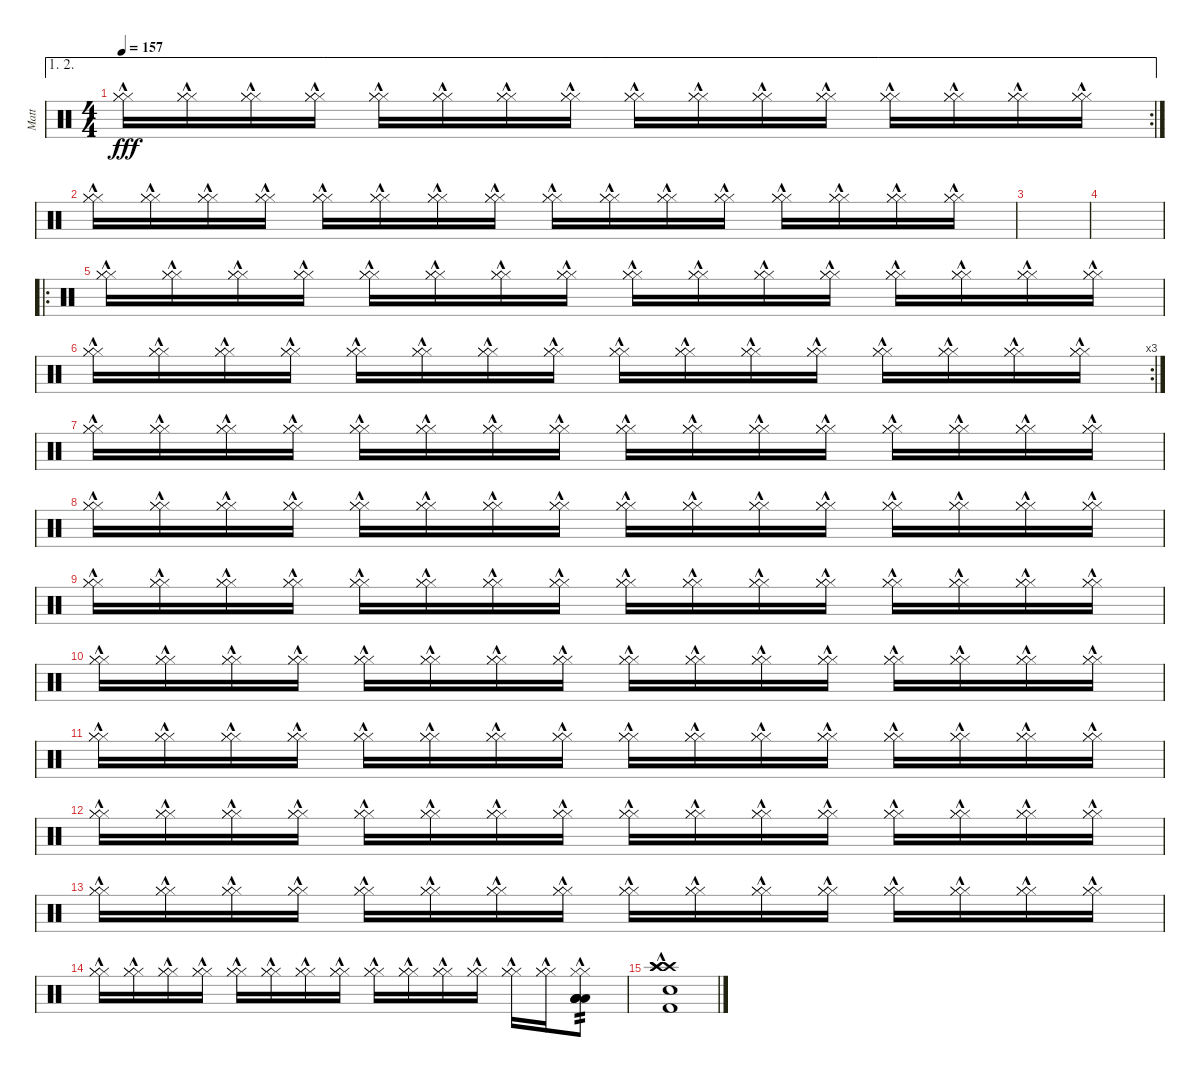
\track ("Matt" "Matt") {instrument percussion}
\staff {score}
\articulation defaults
\ae (1 2)
\rc 2
\ts (4 4)
\tempo 157
\clef neutral
\ks c
("Hi-Hat (closed)"{hac} "Hi-Hat (closed)"{hac} "Hi-Hat (closed)"{hac}).16{dy fff} ("Hi-Hat (closed)"{hac} "Hi-Hat (closed)"{hac} "Hi-Hat (closed)"{hac}).16 ("Hi-Hat (closed)"{hac} "Hi-Hat (closed)"{hac} "Hi-Hat (closed)"{hac}).16 ("Hi-Hat (closed)"{hac} "Hi-Hat (closed)"{hac} "Hi-Hat (closed)"{hac}).16 ("Hi-Hat (closed)"{hac} "Hi-Hat (closed)"{hac} "Hi-Hat (closed)"{hac}).16 ("Hi-Hat (closed)"{hac} "Hi-Hat (closed)"{hac} "Hi-Hat (closed)"{hac}).16 ("Hi-Hat (closed)"{hac} "Hi-Hat (closed)"{hac} "Hi-Hat (closed)"{hac}).16 ("Hi-Hat (closed)"{hac} "Hi-Hat (closed)"{hac} "Hi-Hat (closed)"{hac}).16 ("Hi-Hat (closed)"{hac} "Hi-Hat (closed)"{hac} "Hi-Hat (closed)"{hac}).16 ("Hi-Hat (closed)"{hac} "Hi-Hat (closed)"{hac} "Hi-Hat (closed)"{hac}).16 ("Hi-Hat (closed)"{hac} "Hi-Hat (closed)"{hac} "Hi-Hat (closed)"{hac}).16 ("Hi-Hat (closed)"{hac} "Hi-Hat (closed)"{hac} "Hi-Hat (closed)"{hac}).16 ("Hi-Hat (closed)"{hac} "Hi-Hat (closed)"{hac} "Hi-Hat (closed)"{hac}).16 ("Hi-Hat (closed)"{hac} "Hi-Hat (closed)"{hac} "Hi-Hat (closed)"{hac}).16 ("Hi-Hat (closed)"{hac} "Hi-Hat (closed)"{hac} "Hi-Hat (closed)"{hac}).16 ("Hi-Hat (closed)"{hac} "Hi-Hat (closed)"{hac} "Hi-Hat (closed)"{hac}).16 |
("Hi-Hat (closed)"{hac} "Hi-Hat (closed)"{hac} "Hi-Hat (closed)"{hac}).16 ("Hi-Hat (closed)"{hac} "Hi-Hat (closed)"{hac} "Hi-Hat (closed)"{hac}).16 ("Hi-Hat (closed)"{hac} "Hi-Hat (closed)"{hac} "Hi-Hat (closed)"{hac}).16 ("Hi-Hat (closed)"{hac} "Hi-Hat (closed)"{hac} "Hi-Hat (closed)"{hac}).16 ("Hi-Hat (closed)"{hac} "Hi-Hat (closed)"{hac} "Hi-Hat (closed)"{hac}).16 ("Hi-Hat (closed)"{hac} "Hi-Hat (closed)"{hac} "Hi-Hat (closed)"{hac}).16 ("Hi-Hat (closed)"{hac} "Hi-Hat (closed)"{hac} "Hi-Hat (closed)"{hac}).16 ("Hi-Hat (closed)"{hac} "Hi-Hat (closed)"{hac} "Hi-Hat (closed)"{hac}).16 ("Hi-Hat (closed)"{hac} "Hi-Hat (closed)"{hac} "Hi-Hat (closed)"{hac}).16 ("Hi-Hat (closed)"{hac} "Hi-Hat (closed)"{hac} "Hi-Hat (closed)"{hac}).16 ("Hi-Hat (closed)"{hac} "Hi-Hat (closed)"{hac} "Hi-Hat (closed)"{hac}).16 ("Hi-Hat (closed)"{hac} "Hi-Hat (closed)"{hac} "Hi-Hat (closed)"{hac}).16 ("Hi-Hat (closed)"{hac} "Hi-Hat (closed)"{hac} "Hi-Hat (closed)"{hac}).16 ("Hi-Hat (closed)"{hac} "Hi-Hat (closed)"{hac} "Hi-Hat (closed)"{hac}).16 ("Hi-Hat (closed)"{hac} "Hi-Hat (closed)"{hac} "Hi-Hat (closed)"{hac}).16 ("Hi-Hat (closed)"{hac} "Hi-Hat (closed)"{hac} "Hi-Hat (closed)"{hac}).16 |
|
|
\ro
("Hi-Hat (closed)"{hac} "Hi-Hat (closed)"{hac} "Hi-Hat (closed)"{hac}).16 ("Hi-Hat (closed)"{hac} "Hi-Hat (closed)"{hac} "Hi-Hat (closed)"{hac}).16 ("Hi-Hat (closed)"{hac} "Hi-Hat (closed)"{hac} "Hi-Hat (closed)"{hac}).16 ("Hi-Hat (closed)"{hac} "Hi-Hat (closed)"{hac} "Hi-Hat (closed)"{hac}).16 ("Hi-Hat (closed)"{hac} "Hi-Hat (closed)"{hac} "Hi-Hat (closed)"{hac}).16 ("Hi-Hat (closed)"{hac} "Hi-Hat (closed)"{hac} "Hi-Hat (closed)"{hac}).16 ("Hi-Hat (closed)"{hac} "Hi-Hat (closed)"{hac} "Hi-Hat (closed)"{hac}).16 ("Hi-Hat (closed)"{hac} "Hi-Hat (closed)"{hac} "Hi-Hat (closed)"{hac}).16 ("Hi-Hat (closed)"{hac} "Hi-Hat (closed)"{hac} "Hi-Hat (closed)"{hac}).16 ("Hi-Hat (closed)"{hac} "Hi-Hat (closed)"{hac} "Hi-Hat (closed)"{hac}).16 ("Hi-Hat (closed)"{hac} "Hi-Hat (closed)"{hac} "Hi-Hat (closed)"{hac}).16 ("Hi-Hat (closed)"{hac} "Hi-Hat (closed)"{hac} "Hi-Hat (closed)"{hac}).16 ("Hi-Hat (closed)"{hac} "Hi-Hat (closed)"{hac} "Hi-Hat (closed)"{hac}).16 ("Hi-Hat (closed)"{hac} "Hi-Hat (closed)"{hac} "Hi-Hat (closed)"{hac}).16 ("Hi-Hat (closed)"{hac} "Hi-Hat (closed)"{hac} "Hi-Hat (closed)"{hac}).16 ("Hi-Hat (closed)"{hac} "Hi-Hat (closed)"{hac} "Hi-Hat (closed)"{hac}).16 |
\rc 3
("Hi-Hat (closed)"{hac} "Hi-Hat (closed)"{hac} "Hi-Hat (closed)"{hac}).16 ("Hi-Hat (closed)"{hac} "Hi-Hat (closed)"{hac} "Hi-Hat (closed)"{hac}).16 ("Hi-Hat (closed)"{hac} "Hi-Hat (closed)"{hac} "Hi-Hat (closed)"{hac}).16 ("Hi-Hat (closed)"{hac} "Hi-Hat (closed)"{hac} "Hi-Hat (closed)"{hac}).16 ("Hi-Hat (closed)"{hac} "Hi-Hat (closed)"{hac} "Hi-Hat (closed)"{hac}).16 ("Hi-Hat (closed)"{hac} "Hi-Hat (closed)"{hac} "Hi-Hat (closed)"{hac}).16 ("Hi-Hat (closed)"{hac} "Hi-Hat (closed)"{hac} "Hi-Hat (closed)"{hac}).16 ("Hi-Hat (closed)"{hac} "Hi-Hat (closed)"{hac} "Hi-Hat (closed)"{hac}).16 ("Hi-Hat (closed)"{hac} "Hi-Hat (closed)"{hac} "Hi-Hat (closed)"{hac}).16 ("Hi-Hat (closed)"{hac} "Hi-Hat (closed)"{hac} "Hi-Hat (closed)"{hac}).16 ("Hi-Hat (closed)"{hac} "Hi-Hat (closed)"{hac} "Hi-Hat (closed)"{hac}).16 ("Hi-Hat (closed)"{hac} "Hi-Hat (closed)"{hac} "Hi-Hat (closed)"{hac}).16 ("Hi-Hat (closed)"{hac} "Hi-Hat (closed)"{hac} "Hi-Hat (closed)"{hac}).16 ("Hi-Hat (closed)"{hac} "Hi-Hat (closed)"{hac} "Hi-Hat (closed)"{hac}).16 ("Hi-Hat (closed)"{hac} "Hi-Hat (closed)"{hac} "Hi-Hat (closed)"{hac}).16 ("Hi-Hat (closed)"{hac} "Hi-Hat (closed)"{hac} "Hi-Hat (closed)"{hac}).16 |
("Hi-Hat (closed)"{hac} "Hi-Hat (closed)"{hac} "Hi-Hat (closed)"{hac}).16 ("Hi-Hat (closed)"{hac} "Hi-Hat (closed)"{hac} "Hi-Hat (closed)"{hac}).16 ("Hi-Hat (closed)"{hac} "Hi-Hat (closed)"{hac} "Hi-Hat (closed)"{hac}).16 ("Hi-Hat (closed)"{hac} "Hi-Hat (closed)"{hac} "Hi-Hat (closed)"{hac}).16 ("Hi-Hat (closed)"{hac} "Hi-Hat (closed)"{hac} "Hi-Hat (closed)"{hac}).16 ("Hi-Hat (closed)"{hac} "Hi-Hat (closed)"{hac} "Hi-Hat (closed)"{hac}).16 ("Hi-Hat (closed)"{hac} "Hi-Hat (closed)"{hac} "Hi-Hat (closed)"{hac}).16 ("Hi-Hat (closed)"{hac} "Hi-Hat (closed)"{hac} "Hi-Hat (closed)"{hac}).16 ("Hi-Hat (closed)"{hac} "Hi-Hat (closed)"{hac} "Hi-Hat (closed)"{hac}).16 ("Hi-Hat (closed)"{hac} "Hi-Hat (closed)"{hac} "Hi-Hat (closed)"{hac}).16 ("Hi-Hat (closed)"{hac} "Hi-Hat (closed)"{hac} "Hi-Hat (closed)"{hac}).16 ("Hi-Hat (closed)"{hac} "Hi-Hat (closed)"{hac} "Hi-Hat (closed)"{hac}).16 ("Hi-Hat (closed)"{hac} "Hi-Hat (closed)"{hac} "Hi-Hat (closed)"{hac}).16 ("Hi-Hat (closed)"{hac} "Hi-Hat (closed)"{hac} "Hi-Hat (closed)"{hac}).16 ("Hi-Hat (closed)"{hac} "Hi-Hat (closed)"{hac} "Hi-Hat (closed)"{hac}).16 ("Hi-Hat (closed)"{hac} "Hi-Hat (closed)"{hac} "Hi-Hat (closed)"{hac}).16 |
("Hi-Hat (closed)"{hac} "Hi-Hat (closed)"{hac} "Hi-Hat (closed)"{hac}).16 ("Hi-Hat (closed)"{hac} "Hi-Hat (closed)"{hac} "Hi-Hat (closed)"{hac}).16 ("Hi-Hat (closed)"{hac} "Hi-Hat (closed)"{hac} "Hi-Hat (closed)"{hac}).16 ("Hi-Hat (closed)"{hac} "Hi-Hat (closed)"{hac} "Hi-Hat (closed)"{hac}).16 ("Hi-Hat (closed)"{hac} "Hi-Hat (closed)"{hac} "Hi-Hat (closed)"{hac}).16 ("Hi-Hat (closed)"{hac} "Hi-Hat (closed)"{hac} "Hi-Hat (closed)"{hac}).16 ("Hi-Hat (closed)"{hac} "Hi-Hat (closed)"{hac} "Hi-Hat (closed)"{hac}).16 ("Hi-Hat (closed)"{hac} "Hi-Hat (closed)"{hac} "Hi-Hat (closed)"{hac}).16 ("Hi-Hat (closed)"{hac} "Hi-Hat (closed)"{hac} "Hi-Hat (closed)"{hac}).16 ("Hi-Hat (closed)"{hac} "Hi-Hat (closed)"{hac} "Hi-Hat (closed)"{hac}).16 ("Hi-Hat (closed)"{hac} "Hi-Hat (closed)"{hac} "Hi-Hat (closed)"{hac}).16 ("Hi-Hat (closed)"{hac} "Hi-Hat (closed)"{hac} "Hi-Hat (closed)"{hac}).16 ("Hi-Hat (closed)"{hac} "Hi-Hat (closed)"{hac} "Hi-Hat (closed)"{hac}).16 ("Hi-Hat (closed)"{hac} "Hi-Hat (closed)"{hac} "Hi-Hat (closed)"{hac}).16 ("Hi-Hat (closed)"{hac} "Hi-Hat (closed)"{hac} "Hi-Hat (closed)"{hac}).16 ("Hi-Hat (closed)"{hac} "Hi-Hat (closed)"{hac} "Hi-Hat (closed)"{hac}).16 |
("Hi-Hat (closed)"{hac} "Hi-Hat (closed)"{hac} "Hi-Hat (closed)"{hac}).16 ("Hi-Hat (closed)"{hac} "Hi-Hat (closed)"{hac} "Hi-Hat (closed)"{hac}).16 ("Hi-Hat (closed)"{hac} "Hi-Hat (closed)"{hac} "Hi-Hat (closed)"{hac}).16 ("Hi-Hat (closed)"{hac} "Hi-Hat (closed)"{hac} "Hi-Hat (closed)"{hac}).16 ("Hi-Hat (closed)"{hac} "Hi-Hat (closed)"{hac} "Hi-Hat (closed)"{hac}).16 ("Hi-Hat (closed)"{hac} "Hi-Hat (closed)"{hac} "Hi-Hat (closed)"{hac}).16 ("Hi-Hat (closed)"{hac} "Hi-Hat (closed)"{hac} "Hi-Hat (closed)"{hac}).16 ("Hi-Hat (closed)"{hac} "Hi-Hat (closed)"{hac} "Hi-Hat (closed)"{hac}).16 ("Hi-Hat (closed)"{hac} "Hi-Hat (closed)"{hac} "Hi-Hat (closed)"{hac}).16 ("Hi-Hat (closed)"{hac} "Hi-Hat (closed)"{hac} "Hi-Hat (closed)"{hac}).16 ("Hi-Hat (closed)"{hac} "Hi-Hat (closed)"{hac} "Hi-Hat (closed)"{hac}).16 ("Hi-Hat (closed)"{hac} "Hi-Hat (closed)"{hac} "Hi-Hat (closed)"{hac}).16 ("Hi-Hat (closed)"{hac} "Hi-Hat (closed)"{hac} "Hi-Hat (closed)"{hac}).16 ("Hi-Hat (closed)"{hac} "Hi-Hat (closed)"{hac} "Hi-Hat (closed)"{hac}).16 ("Hi-Hat (closed)"{hac} "Hi-Hat (closed)"{hac} "Hi-Hat (closed)"{hac}).16 ("Hi-Hat (closed)"{hac} "Hi-Hat (closed)"{hac} "Hi-Hat (closed)"{hac}).16 |
("Hi-Hat (closed)"{hac} "Hi-Hat (closed)"{hac} "Hi-Hat (closed)"{hac}).16 ("Hi-Hat (closed)"{hac} "Hi-Hat (closed)"{hac} "Hi-Hat (closed)"{hac}).16 ("Hi-Hat (closed)"{hac} "Hi-Hat (closed)"{hac} "Hi-Hat (closed)"{hac}).16 ("Hi-Hat (closed)"{hac} "Hi-Hat (closed)"{hac} "Hi-Hat (closed)"{hac}).16 ("Hi-Hat (closed)"{hac} "Hi-Hat (closed)"{hac} "Hi-Hat (closed)"{hac}).16 ("Hi-Hat (closed)"{hac} "Hi-Hat (closed)"{hac} "Hi-Hat (closed)"{hac}).16 ("Hi-Hat (closed)"{hac} "Hi-Hat (closed)"{hac} "Hi-Hat (closed)"{hac}).16 ("Hi-Hat (closed)"{hac} "Hi-Hat (closed)"{hac} "Hi-Hat (closed)"{hac}).16 ("Hi-Hat (closed)"{hac} "Hi-Hat (closed)"{hac} "Hi-Hat (closed)"{hac}).16 ("Hi-Hat (closed)"{hac} "Hi-Hat (closed)"{hac} "Hi-Hat (closed)"{hac}).16 ("Hi-Hat (closed)"{hac} "Hi-Hat (closed)"{hac} "Hi-Hat (closed)"{hac}).16 ("Hi-Hat (closed)"{hac} "Hi-Hat (closed)"{hac} "Hi-Hat (closed)"{hac}).16 ("Hi-Hat (closed)"{hac} "Hi-Hat (closed)"{hac} "Hi-Hat (closed)"{hac}).16 ("Hi-Hat (closed)"{hac} "Hi-Hat (closed)"{hac} "Hi-Hat (closed)"{hac}).16 ("Hi-Hat (closed)"{hac} "Hi-Hat (closed)"{hac} "Hi-Hat (closed)"{hac}).16 ("Hi-Hat (closed)"{hac} "Hi-Hat (closed)"{hac} "Hi-Hat (closed)"{hac}).16 |
("Hi-Hat (closed)"{hac} "Hi-Hat (closed)"{hac} "Hi-Hat (closed)"{hac}).16 ("Hi-Hat (closed)"{hac} "Hi-Hat (closed)"{hac} "Hi-Hat (closed)"{hac}).16 ("Hi-Hat (closed)"{hac} "Hi-Hat (closed)"{hac} "Hi-Hat (closed)"{hac}).16 ("Hi-Hat (closed)"{hac} "Hi-Hat (closed)"{hac} "Hi-Hat (closed)"{hac}).16 ("Hi-Hat (closed)"{hac} "Hi-Hat (closed)"{hac} "Hi-Hat (closed)"{hac}).16 ("Hi-Hat (closed)"{hac} "Hi-Hat (closed)"{hac} "Hi-Hat (closed)"{hac}).16 ("Hi-Hat (closed)"{hac} "Hi-Hat (closed)"{hac} "Hi-Hat (closed)"{hac}).16 ("Hi-Hat (closed)"{hac} "Hi-Hat (closed)"{hac} "Hi-Hat (closed)"{hac}).16 ("Hi-Hat (closed)"{hac} "Hi-Hat (closed)"{hac} "Hi-Hat (closed)"{hac}).16 ("Hi-Hat (closed)"{hac} "Hi-Hat (closed)"{hac} "Hi-Hat (closed)"{hac}).16 ("Hi-Hat (closed)"{hac} "Hi-Hat (closed)"{hac} "Hi-Hat (closed)"{hac}).16 ("Hi-Hat (closed)"{hac} "Hi-Hat (closed)"{hac} "Hi-Hat (closed)"{hac}).16 ("Hi-Hat (closed)"{hac} "Hi-Hat (closed)"{hac} "Hi-Hat (closed)"{hac}).16 ("Hi-Hat (closed)"{hac} "Hi-Hat (closed)"{hac} "Hi-Hat (closed)"{hac}).16 ("Hi-Hat (closed)"{hac} "Hi-Hat (closed)"{hac} "Hi-Hat (closed)"{hac}).16 ("Hi-Hat (closed)"{hac} "Hi-Hat (closed)"{hac} "Hi-Hat (closed)"{hac}).16 |
("Hi-Hat (closed)"{hac} "Hi-Hat (closed)"{hac} "Hi-Hat (closed)"{hac}).16 ("Hi-Hat (closed)"{hac} "Hi-Hat (closed)"{hac} "Hi-Hat (closed)"{hac}).16 ("Hi-Hat (closed)"{hac} "Hi-Hat (closed)"{hac} "Hi-Hat (closed)"{hac}).16 ("Hi-Hat (closed)"{hac} "Hi-Hat (closed)"{hac} "Hi-Hat (closed)"{hac}).16 ("Hi-Hat (closed)"{hac} "Hi-Hat (closed)"{hac} "Hi-Hat (closed)"{hac}).16 ("Hi-Hat (closed)"{hac} "Hi-Hat (closed)"{hac} "Hi-Hat (closed)"{hac}).16 ("Hi-Hat (closed)"{hac} "Hi-Hat (closed)"{hac} "Hi-Hat (closed)"{hac}).16 ("Hi-Hat (closed)"{hac} "Hi-Hat (closed)"{hac} "Hi-Hat (closed)"{hac}).16 ("Hi-Hat (closed)"{hac} "Hi-Hat (closed)"{hac} "Hi-Hat (closed)"{hac}).16 ("Hi-Hat (closed)"{hac} "Hi-Hat (closed)"{hac} "Hi-Hat (closed)"{hac}).16 ("Hi-Hat (closed)"{hac} "Hi-Hat (closed)"{hac} "Hi-Hat (closed)"{hac}).16 ("Hi-Hat (closed)"{hac} "Hi-Hat (closed)"{hac} "Hi-Hat (closed)"{hac}).16 ("Hi-Hat (closed)"{hac} "Hi-Hat (closed)"{hac} "Hi-Hat (closed)"{hac}).16 ("Hi-Hat (closed)"{hac} "Hi-Hat (closed)"{hac} "Hi-Hat (closed)"{hac}).16 ("Hi-Hat (closed)"{hac} "Hi-Hat (closed)"{hac} "Hi-Hat (closed)"{hac}).16 ("Hi-Hat (closed)"{hac} "Hi-Hat (closed)"{hac} "Hi-Hat (closed)"{hac}).16 |
("Hi-Hat (closed)"{hac} "Hi-Hat (closed)"{hac} "Hi-Hat (closed)"{hac}).16 ("Hi-Hat (closed)"{hac} "Hi-Hat (closed)"{hac} "Hi-Hat (closed)"{hac}).16 ("Hi-Hat (closed)"{hac} "Hi-Hat (closed)"{hac} "Hi-Hat (closed)"{hac}).16 ("Hi-Hat (closed)"{hac} "Hi-Hat (closed)"{hac} "Hi-Hat (closed)"{hac}).16 ("Hi-Hat (closed)"{hac} "Hi-Hat (closed)"{hac} "Hi-Hat (closed)"{hac}).16 ("Hi-Hat (closed)"{hac} "Hi-Hat (closed)"{hac} "Hi-Hat (closed)"{hac}).16 ("Hi-Hat (closed)"{hac} "Hi-Hat (closed)"{hac} "Hi-Hat (closed)"{hac}).16 ("Hi-Hat (closed)"{hac} "Hi-Hat (closed)"{hac} "Hi-Hat (closed)"{hac}).16 ("Hi-Hat (closed)"{hac} "Hi-Hat (closed)"{hac} "Hi-Hat (closed)"{hac}).16 ("Hi-Hat (closed)"{hac} "Hi-Hat (closed)"{hac} "Hi-Hat (closed)"{hac}).16 ("Hi-Hat (closed)"{hac} "Hi-Hat (closed)"{hac} "Hi-Hat (closed)"{hac}).16 ("Hi-Hat (closed)"{hac} "Hi-Hat (closed)"{hac} "Hi-Hat (closed)"{hac}).16 ("Hi-Hat (closed)"{hac} "Hi-Hat (closed)"{hac} "Hi-Hat (closed)"{hac}).16 ("Hi-Hat (closed)"{hac} "Hi-Hat (closed)"{hac} "Hi-Hat (closed)"{hac}).16 ("Hi-Hat (closed)"{hac} "Hi-Hat (closed)"{hac} "Hi-Hat (closed)"{hac}).16 ("Hi-Hat (closed)"{hac} "Hi-Hat (closed)"{hac} "Hi-Hat (closed)"{hac}).16 |
("Hi-Hat (closed)"{hac} "Hi-Hat (closed)"{hac} "Hi-Hat (closed)"{hac}).16 ("Hi-Hat (closed)"{hac} "Hi-Hat (closed)"{hac} "Hi-Hat (closed)"{hac}).16 ("Hi-Hat (closed)"{hac} "Hi-Hat (closed)"{hac} "Hi-Hat (closed)"{hac}).16 ("Hi-Hat (closed)"{hac} "Hi-Hat (closed)"{hac} "Hi-Hat (closed)"{hac}).16 ("Hi-Hat (closed)"{hac} "Hi-Hat (closed)"{hac} "Hi-Hat (closed)"{hac}).16 ("Hi-Hat (closed)"{hac} "Hi-Hat (closed)"{hac} "Hi-Hat (closed)"{hac}).16 ("Hi-Hat (closed)"{hac} "Hi-Hat (closed)"{hac} "Hi-Hat (closed)"{hac}).16 ("Hi-Hat (closed)"{hac} "Hi-Hat (closed)"{hac} "Hi-Hat (closed)"{hac}).16 ("Hi-Hat (closed)"{hac} "Hi-Hat (closed)"{hac} "Hi-Hat (closed)"{hac}).16 ("Hi-Hat (closed)"{hac} "Hi-Hat (closed)"{hac} "Hi-Hat (closed)"{hac}).16 ("Hi-Hat (closed)"{hac} "Hi-Hat (closed)"{hac} "Hi-Hat (closed)"{hac}).16 ("Hi-Hat (closed)"{hac} "Hi-Hat (closed)"{hac} "Hi-Hat (closed)"{hac}).16 ("Hi-Hat (closed)"{hac} "Hi-Hat (closed)"{hac} "Hi-Hat (closed)"{hac}).16 ("Hi-Hat (closed)"{hac} "Hi-Hat (closed)"{hac} "Hi-Hat (closed)"{hac}).16 ("Hi-Hat (closed)"{hac} "Hi-Hat (closed)"{hac} "Low Tom (hit)"{hac} "Low Tom (hit)"{hac} "Low Tom (hit)"{hac} "Low Tom (hit)"{hac}).8{tp 2} |
("Crash high (hit)"{hac} "Crash high (hit)"{hac} "Crash high (hit)"{hac} "Snare (hit) 2"{hac} "Kick (hit) 2"{hac}).1
